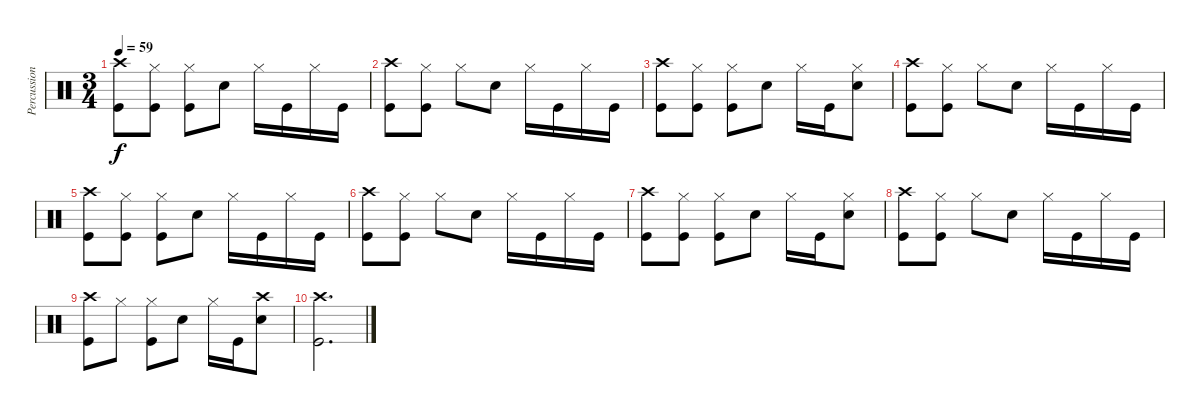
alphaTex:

\track ("Percussion" "Percussion") {instrument percussion}
\staff {score}
\articulation defaults
\ts (3 4)
\tempo 59
\clef neutral
\ks c
("Crash high (hit)" "Kick (hit)").8{dy f} ("Hi-Hat (closed)" "Kick (hit)").8 ("Hi-Hat (closed)" "Kick (hit)").8 "Electric Snare (hit)".8 "Hi-Hat (closed)".16 "Kick (hit)".16 "Hi-Hat (closed)".16 "Kick (hit)".16 |
("Crash high (hit)" "Kick (hit)").8 ("Hi-Hat (closed)" "Kick (hit)").8 "Hi-Hat (closed)".8 "Electric Snare (hit)".8 "Hi-Hat (closed)".16 "Kick (hit)".16 "Hi-Hat (closed)".16 "Kick (hit)".16 |
("Crash high (hit)" "Kick (hit)").8 ("Hi-Hat (closed)" "Kick (hit)").8 ("Hi-Hat (closed)" "Kick (hit)").8 "Electric Snare (hit)".8 "Hi-Hat (closed)".16 "Kick (hit)".16 ("Hi-Hat (closed)" "Electric Snare (hit)").8 |
("Crash high (hit)" "Kick (hit)").8 ("Hi-Hat (closed)" "Kick (hit)").8 "Hi-Hat (closed)".8 "Electric Snare (hit)".8 "Hi-Hat (closed)".16 "Kick (hit)".16 "Hi-Hat (closed)".16 "Kick (hit)".16 |
("Crash high (hit)" "Kick (hit)").8 ("Hi-Hat (closed)" "Kick (hit)").8 ("Hi-Hat (closed)" "Kick (hit)").8 "Electric Snare (hit)".8 "Hi-Hat (closed)".16 "Kick (hit)".16 "Hi-Hat (closed)".16 "Kick (hit)".16 |
("Crash high (hit)" "Kick (hit)").8 ("Hi-Hat (closed)" "Kick (hit)").8 "Hi-Hat (closed)".8 "Electric Snare (hit)".8 "Hi-Hat (closed)".16 "Kick (hit)".16 "Hi-Hat (closed)".16 "Kick (hit)".16 |
("Crash high (hit)" "Kick (hit)").8 ("Hi-Hat (closed)" "Kick (hit)").8 ("Hi-Hat (closed)" "Kick (hit)").8 "Electric Snare (hit)".8 "Hi-Hat (closed)".16 "Kick (hit)".16 ("Hi-Hat (closed)" "Electric Snare (hit)").8 |
("Crash high (hit)" "Kick (hit)").8 ("Hi-Hat (closed)" "Kick (hit)").8 "Hi-Hat (closed)".8 "Electric Snare (hit)".8 "Hi-Hat (closed)".16 "Kick (hit)".16 "Hi-Hat (closed)".16 "Kick (hit)".16 |
("Crash high (hit)" "Kick (hit)").8 "Hi-Hat (closed)".8 ("Hi-Hat (closed)" "Kick (hit)").8 "Electric Snare (hit)".8 "Hi-Hat (closed)".16 "Kick (hit)".16 ("Crash high (hit)" "Electric Snare (hit)").8 |
("Crash high (hit)" "Kick (hit)").2{d}
